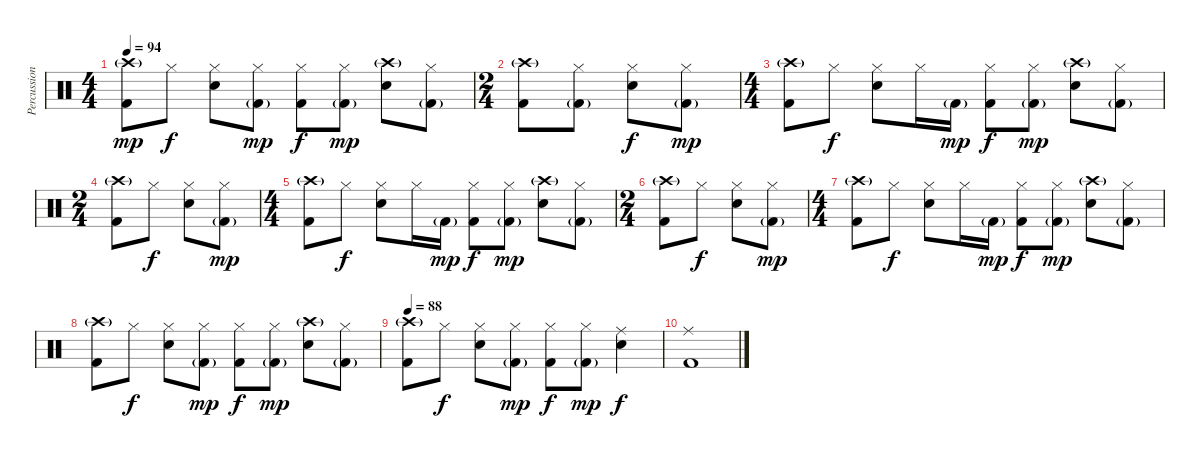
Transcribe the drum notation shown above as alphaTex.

\track ("Percussion" "Percussion") {instrument percussion}
\staff {score}
\articulation defaults
\ts (4 4)
\tempo 94
\clef neutral
\ks c
("Crash high (hit)"{g} "Kick (hit) 2").8{dy mp} "Hi-Hat (closed)".8{dy f} ("Hi-Hat (closed)" "Snare (hit) 2").8 ("Hi-Hat (closed)" "Kick (hit) 2"{g}).8{dy mp} ("Hi-Hat (closed)" "Kick (hit) 2").8{dy f} ("Hi-Hat (closed)" "Kick (hit) 2"{g}).8{dy mp} ("Crash high (hit)"{g} "Snare (hit) 2").8 ("Hi-Hat (closed)" "Kick (hit) 2"{g}).8 |
\ts (2 4)
("Crash high (hit)"{g} "Kick (hit) 2").8 ("Hi-Hat (closed)" "Kick (hit) 2"{g}).8 ("Hi-Hat (closed)" "Snare (hit) 2").8{dy f} ("Hi-Hat (closed)" "Kick (hit) 2"{g}).8{dy mp} |
\ts (4 4)
("Crash high (hit)"{g} "Kick (hit) 2").8 "Hi-Hat (closed)".8{dy f} ("Hi-Hat (closed)" "Snare (hit) 2").8 "Hi-Hat (closed)".16 "Kick (hit) 2"{g}.16{dy mp} ("Hi-Hat (closed)" "Kick (hit) 2").8{dy f} ("Hi-Hat (closed)" "Kick (hit) 2"{g}).8{dy mp} ("Crash high (hit)"{g} "Snare (hit) 2").8 ("Hi-Hat (closed)" "Kick (hit) 2"{g}).8 |
\ts (2 4)
("Crash high (hit)"{g} "Kick (hit) 2").8 "Hi-Hat (closed)".8{dy f} ("Hi-Hat (closed)" "Snare (hit) 2").8 ("Hi-Hat (closed)" "Kick (hit) 2"{g}).8{dy mp} |
\ts (4 4)
("Crash high (hit)"{g} "Kick (hit) 2").8 "Hi-Hat (closed)".8{dy f} ("Hi-Hat (closed)" "Snare (hit) 2").8 "Hi-Hat (closed)".16 "Kick (hit) 2"{g}.16{dy mp} ("Hi-Hat (closed)" "Kick (hit) 2").8{dy f} ("Hi-Hat (closed)" "Kick (hit) 2"{g}).8{dy mp} ("Crash high (hit)"{g} "Snare (hit) 2").8 ("Hi-Hat (closed)" "Kick (hit) 2"{g}).8 |
\ts (2 4)
("Crash high (hit)"{g} "Kick (hit) 2").8 "Hi-Hat (closed)".8{dy f} ("Hi-Hat (closed)" "Snare (hit) 2").8 ("Hi-Hat (closed)" "Kick (hit) 2"{g}).8{dy mp} |
\ts (4 4)
("Crash high (hit)"{g} "Kick (hit) 2").8 "Hi-Hat (closed)".8{dy f} ("Hi-Hat (closed)" "Snare (hit) 2").8 "Hi-Hat (closed)".16 "Kick (hit) 2"{g}.16{dy mp} ("Hi-Hat (closed)" "Kick (hit) 2").8{dy f} ("Hi-Hat (closed)" "Kick (hit) 2"{g}).8{dy mp} ("Crash high (hit)"{g} "Snare (hit) 2").8 ("Hi-Hat (closed)" "Kick (hit) 2"{g}).8 |
("Crash high (hit)"{g} "Kick (hit) 2").8 "Hi-Hat (closed)".8{dy f} ("Hi-Hat (closed)" "Snare (hit) 2").8 ("Hi-Hat (closed)" "Kick (hit) 2"{g}).8{dy mp} ("Hi-Hat (closed)" "Kick (hit) 2").8{dy f} ("Hi-Hat (closed)" "Kick (hit) 2"{g}).8{dy mp} ("Crash high (hit)"{g} "Snare (hit) 2").8 ("Hi-Hat (closed)" "Kick (hit) 2"{g}).8 |
\tempo 88
("Crash high (hit)"{g} "Kick (hit) 2").8 "Hi-Hat (closed)".8{dy f} ("Hi-Hat (closed)" "Snare (hit) 2").8 ("Hi-Hat (closed)" "Kick (hit) 2"{g}).8{dy mp} ("Hi-Hat (closed)" "Kick (hit) 2").8{dy f} ("Hi-Hat (closed)" "Kick (hit) 2"{g}).8{dy mp} ("Ride (middle)" "Snare (hit) 2").4{dy f} |
("Ride (middle)" "Kick (hit) 2").1
